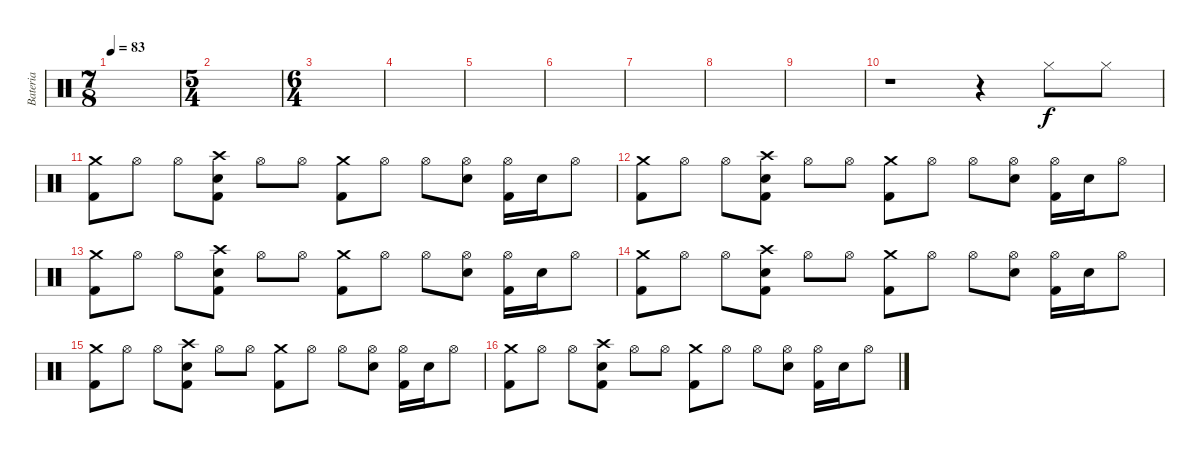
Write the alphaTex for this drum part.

\track ("Bateria" "Bateria") {instrument percussion}
\staff {score}
\articulation defaults
\ts (7 8)
\tempo 83
\clef neutral
\ks c
|
\ts (5 4)
|
\ts (6 4)
|
|
|
|
|
|
|
r.1 r.4 "Hi-Hat (closed)".8 "Hi-Hat (closed)".8 |
("Crash medium (hit)" "Kick (hit) 2").8 "Hi-Hat (open)".8 "Hi-Hat (open)".8 ("Crash high (hit)" "Snare (hit) 2" "Kick (hit) 2").8 "Hi-Hat (open)".8 "Hi-Hat (open)".8 ("Crash medium (hit)" "Kick (hit) 2").8 "Hi-Hat (open)".8 "Hi-Hat (open)".8 ("Hi-Hat (open)" "Snare (hit) 2").8 ("Hi-Hat (open)" "Kick (hit) 2").16 "Snare (hit) 2".16 "Hi-Hat (open)".8 |
("Crash medium (hit)" "Kick (hit) 2").8 "Hi-Hat (open)".8 "Hi-Hat (open)".8 ("Crash high (hit)" "Snare (hit) 2" "Kick (hit) 2").8 "Hi-Hat (open)".8 "Hi-Hat (open)".8 ("Crash medium (hit)" "Kick (hit) 2").8 "Hi-Hat (open)".8 "Hi-Hat (open)".8 ("Hi-Hat (open)" "Snare (hit) 2").8 ("Hi-Hat (open)" "Kick (hit) 2").16 "Snare (hit) 2".16 "Hi-Hat (open)".8 |
("Crash medium (hit)" "Kick (hit) 2").8 "Hi-Hat (open)".8 "Hi-Hat (open)".8 ("Crash high (hit)" "Snare (hit) 2" "Kick (hit) 2").8 "Hi-Hat (open)".8 "Hi-Hat (open)".8 ("Crash medium (hit)" "Kick (hit) 2").8 "Hi-Hat (open)".8 "Hi-Hat (open)".8 ("Hi-Hat (open)" "Snare (hit) 2").8 ("Hi-Hat (open)" "Kick (hit) 2").16 "Snare (hit) 2".16 "Hi-Hat (open)".8 |
("Crash medium (hit)" "Kick (hit) 2").8 "Hi-Hat (open)".8 "Hi-Hat (open)".8 ("Crash high (hit)" "Snare (hit) 2" "Kick (hit) 2").8 "Hi-Hat (open)".8 "Hi-Hat (open)".8 ("Crash medium (hit)" "Kick (hit) 2").8 "Hi-Hat (open)".8 "Hi-Hat (open)".8 ("Hi-Hat (open)" "Snare (hit) 2").8 ("Hi-Hat (open)" "Kick (hit) 2").16 "Snare (hit) 2".16 "Hi-Hat (open)".8 |
("Crash medium (hit)" "Kick (hit) 2").8 "Hi-Hat (open)".8 "Hi-Hat (open)".8 ("Crash high (hit)" "Snare (hit) 2" "Kick (hit) 2").8 "Hi-Hat (open)".8 "Hi-Hat (open)".8 ("Crash medium (hit)" "Kick (hit) 2").8 "Hi-Hat (open)".8 "Hi-Hat (open)".8 ("Hi-Hat (open)" "Snare (hit) 2").8 ("Hi-Hat (open)" "Kick (hit) 2").16 "Snare (hit) 2".16 "Hi-Hat (open)".8 |
("Crash medium (hit)" "Kick (hit) 2").8 "Hi-Hat (open)".8 "Hi-Hat (open)".8 ("Crash high (hit)" "Snare (hit) 2" "Kick (hit) 2").8 "Hi-Hat (open)".8 "Hi-Hat (open)".8 ("Crash medium (hit)" "Kick (hit) 2").8 "Hi-Hat (open)".8 "Hi-Hat (open)".8 ("Hi-Hat (open)" "Snare (hit) 2").8 ("Hi-Hat (open)" "Kick (hit) 2").16 "Snare (hit) 2".16 "Hi-Hat (open)".8
